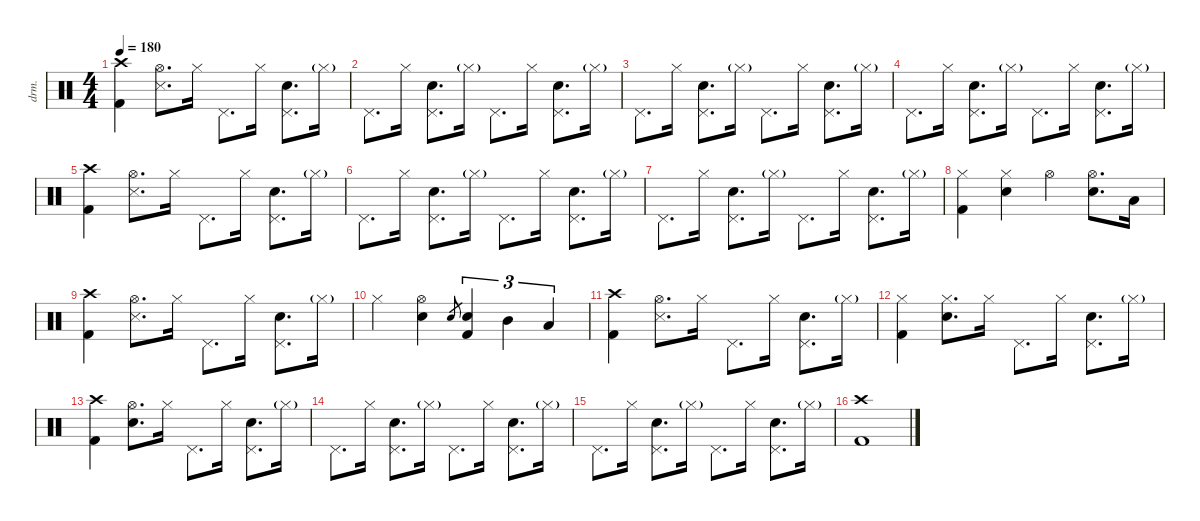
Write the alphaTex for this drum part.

\defaultSystemsLayout 4
\hideDynamics
\bracketExtendMode nobrackets
\otherSystemsTrackNameOrientation horizontal
\track ("Drums" "drm.") {instrument percussion}
\staff {score}
\articulation defaults
\ts (4 4)
\tempo 180
\clef neutral
\ks c
("Crash high (hit)" "Kick (hit) 2").4{dy f} ("Hi-Hat (open)" "Snare (side stick) 3").8{d} "Hi-Hat (closed)".16 "Pedal Hi-Hat (hit)".8{d} "Hi-Hat (closed)".16 ("Pedal Hi-Hat (hit)" "Snare (hit) 2").8{d} "Hi-Hat (closed)"{g}.16{dy mf} |
"Pedal Hi-Hat (hit)".8{d dy f} "Hi-Hat (closed)".16 ("Pedal Hi-Hat (hit)" "Snare (hit) 2").8{d} "Hi-Hat (closed)"{g}.16{dy mf} "Pedal Hi-Hat (hit)".8{d dy f} "Hi-Hat (closed)".16 ("Pedal Hi-Hat (hit)" "Snare (hit) 2").8{d} "Hi-Hat (closed)"{g}.16{dy mf} |
"Pedal Hi-Hat (hit)".8{d dy f} "Hi-Hat (closed)".16 ("Pedal Hi-Hat (hit)" "Snare (hit) 2").8{d} "Hi-Hat (closed)"{g}.16{dy mf} "Pedal Hi-Hat (hit)".8{d dy f} "Hi-Hat (closed)".16 ("Pedal Hi-Hat (hit)" "Snare (hit) 2").8{d} "Hi-Hat (closed)"{g}.16{dy mf} |
"Pedal Hi-Hat (hit)".8{d dy f} "Hi-Hat (closed)".16 ("Pedal Hi-Hat (hit)" "Snare (hit) 2").8{d} "Hi-Hat (closed)"{g}.16{dy mf} "Pedal Hi-Hat (hit)".8{d dy f} "Hi-Hat (closed)".16 ("Pedal Hi-Hat (hit)" "Snare (hit) 2").8{d} "Hi-Hat (closed)"{g}.16{dy mf} |
("Crash high (hit)" "Kick (hit) 2").4{dy f} ("Hi-Hat (open)" "Snare (side stick) 3").8{d} "Hi-Hat (closed)".16 "Pedal Hi-Hat (hit)".8{d} "Hi-Hat (closed)".16 ("Pedal Hi-Hat (hit)" "Snare (hit) 2").8{d} "Hi-Hat (closed)"{g}.16{dy mf} |
"Pedal Hi-Hat (hit)".8{d dy f} "Hi-Hat (closed)".16 ("Pedal Hi-Hat (hit)" "Snare (hit) 2").8{d} "Hi-Hat (closed)"{g}.16{dy mf} "Pedal Hi-Hat (hit)".8{d dy f} "Hi-Hat (closed)".16 ("Pedal Hi-Hat (hit)" "Snare (hit) 2").8{d} "Hi-Hat (closed)"{g}.16{dy mf} |
"Pedal Hi-Hat (hit)".8{d dy f} "Hi-Hat (closed)".16 ("Pedal Hi-Hat (hit)" "Snare (hit) 2").8{d} "Hi-Hat (closed)"{g}.16{dy mf} "Pedal Hi-Hat (hit)".8{d dy f} "Hi-Hat (closed)".16 ("Pedal Hi-Hat (hit)" "Snare (hit) 2").8{d} "Hi-Hat (closed)"{g}.16{dy mf} |
("Hi-Hat (closed)" "Kick (hit) 2").4{dy f} ("Hi-Hat (closed)" "Snare (hit) 2").4 "Hi-Hat (open)".4 ("Hi-Hat (open)" "Snare (hit) 2").8{d} "Low Tom (hit)".16 |
("Crash high (hit)" "Kick (hit) 2").4 ("Hi-Hat (open)" "Snare (side stick) 3").8{d} "Hi-Hat (closed)".16 "Pedal Hi-Hat (hit)".8{d} "Hi-Hat (closed)".16 ("Pedal Hi-Hat (hit)" "Snare (hit) 2").8{d} "Hi-Hat (closed)"{g}.16{dy mf} |
"Hi-Hat (closed)".4{dy f} ("Hi-Hat (open)" "Snare (hit) 2").4 "Snare (hit) 2".8{gr dy mf} ("Snare (hit) 2" "Kick (hit) 2").4{tu (3 2) dy f} "Mid Tom (hit)".4{tu (3 2)} "Low Tom (hit)".4{tu (3 2)} |
("Crash high (hit)" "Kick (hit) 2").4 ("Hi-Hat (open)" "Snare (side stick) 3").8{d} "Hi-Hat (closed)".16 "Pedal Hi-Hat (hit)".8{d} "Hi-Hat (closed)".16 ("Pedal Hi-Hat (hit)" "Snare (hit) 2").8{d} "Hi-Hat (closed)"{g}.16{dy mf} |
("Hi-Hat (closed)" "Kick (hit) 2").4{dy f} ("Hi-Hat (closed)" "Snare (hit) 2").8{d} "Hi-Hat (closed)".16 "Pedal Hi-Hat (hit)".8{d} "Hi-Hat (closed)".16 ("Pedal Hi-Hat (hit)" "Snare (hit) 2").8{d} "Hi-Hat (closed)"{g}.16{dy mf} |
("Crash high (hit)" "Kick (hit) 2").4{dy f} ("Hi-Hat (open)" "Snare (hit) 2").8{d} "Hi-Hat (closed)".16 "Pedal Hi-Hat (hit)".8{d} "Hi-Hat (closed)".16 ("Pedal Hi-Hat (hit)" "Snare (hit) 2").8{d} "Hi-Hat (closed)"{g}.16{dy mf} |
"Pedal Hi-Hat (hit)".8{d dy f} "Hi-Hat (closed)".16 ("Pedal Hi-Hat (hit)" "Snare (hit) 2").8{d} "Hi-Hat (closed)"{g}.16{dy mf} "Pedal Hi-Hat (hit)".8{d dy f} "Hi-Hat (closed)".16 ("Pedal Hi-Hat (hit)" "Snare (hit) 2").8{d} "Hi-Hat (closed)"{g}.16{dy mf} |
"Pedal Hi-Hat (hit)".8{d dy f} "Hi-Hat (closed)".16 ("Pedal Hi-Hat (hit)" "Snare (hit) 2").8{d} "Hi-Hat (closed)"{g}.16{dy mf} "Pedal Hi-Hat (hit)".8{d dy f} "Hi-Hat (closed)".16 ("Pedal Hi-Hat (hit)" "Snare (hit) 2").8{d} "Hi-Hat (closed)"{g}.16{dy mf} |
("Crash high (hit)" "Kick (hit) 2").1
